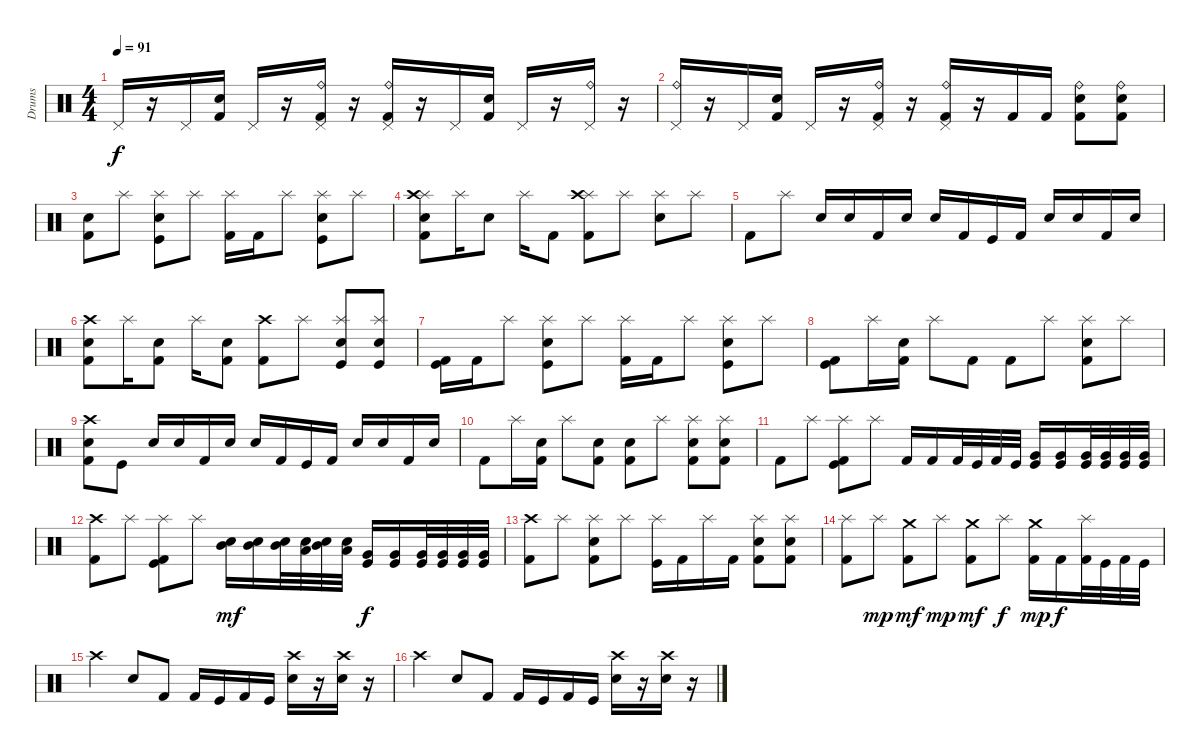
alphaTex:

\track ("Drums" "Drums") {instrument percussion}
\staff {score}
\articulation defaults
\ts (4 4)
\tempo 91
\clef neutral
\ks c "Pedal Hi-Hat (hit)".16{dy f}
r.16 "Pedal Hi-Hat (hit)".16 ("Electric Snare (hit)" "Kick (hit) 2").16 "Pedal Hi-Hat (hit)".16 r.16 ("Pedal Hi-Hat (hit)" "Ride (bell)" "Kick (hit) 2").16 r.16 ("Pedal Hi-Hat (hit)" "Ride (bell)" "Kick (hit) 2").16 r.16 "Pedal Hi-Hat (hit)".16 ("Electric Snare (hit)" "Kick (hit) 2").16 "Pedal Hi-Hat (hit)".16 r.16 ("Pedal Hi-Hat (hit)" "Ride (bell)").16 r.16 |
("Pedal Hi-Hat (hit)" "Ride (bell)").16 r.16 "Pedal Hi-Hat (hit)".16 ("Electric Snare (hit)" "Kick (hit) 2").16 "Pedal Hi-Hat (hit)".16 r.16 ("Pedal Hi-Hat (hit)" "Ride (bell)" "Kick (hit) 2").16 r.16 ("Pedal Hi-Hat (hit)" "Ride (bell)" "Kick (hit) 2").16 r.16 "Kick (hit) 2".16 "Kick (hit) 2".16 ("Ride (bell)" "Kick (hit) 2" "Electric Snare (hit)").8 ("Ride (bell)" "Kick (hit) 2" "Electric Snare (hit)").8 |
("Kick (hit) 2" "Snare (hit) 2").8 "Splash (hit)".8 ("Splash (hit)" "Electric Snare (hit)" "Kick (hit)").8 "Splash (hit)".8 ("Splash (hit)" "Kick (hit) 2").16 "Kick (hit) 2".16 "Splash (hit)".8 ("Splash (hit)" "Electric Snare (hit)" "Kick (hit)").8 "Splash (hit)".8 |
("Splash (hit)" "Snare (hit) 2" "Kick (hit) 2" "Crash high (hit)").8 "Splash (hit)".16 "Electric Snare (hit)".8 "Splash (hit)".16 "Kick (hit) 2".8 ("Splash (hit)" "Kick (hit) 2" "Crash high (hit)").8 "Splash (hit)".8 ("Splash (hit)" "Electric Snare (hit)").8 "Splash (hit)".8 |
"Kick (hit) 2".8 "Splash (hit)".8 "Snare (hit) 2".16 "Electric Snare (hit)".16 "Kick (hit) 2".16 "Snare (hit) 2".16 "Electric Snare (hit)".16 "Kick (hit) 2".16 "Kick (hit)".16 "Kick (hit) 2".16 "Snare (hit) 2".16 "Electric Snare (hit)".16 "Kick (hit) 2".16 "Snare (hit) 2".16 |
("Crash high (hit)" "Kick (hit) 2" "Snare (hit) 2").8 "Splash (hit)".16 ("Kick (hit) 2" "Electric Snare (hit)").8 "Splash (hit)".16 ("Kick (hit) 2" "Snare (hit) 2").8 ("Kick (hit) 2" "Crash high (hit)").8 "Splash (hit)".8 ("Splash (hit)" "Electric Snare (hit)" "Kick (hit)").8 ("Splash (hit)" "Electric Snare (hit)" "Kick (hit)").8 |
("Kick (hit)" "Kick (hit) 2").16 "Kick (hit) 2".16 "Splash (hit)".8 ("Splash (hit)" "Electric Snare (hit)" "Kick (hit)").8 "Splash (hit)".8 ("Splash (hit)" "Kick (hit) 2").16 "Kick (hit) 2".16 "Splash (hit)".8 ("Splash (hit)" "Electric Snare (hit)" "Kick (hit)").8 "Splash (hit)".8 |
("Kick (hit) 2" "Kick (hit)").8 "Splash (hit)".16 ("Kick (hit) 2" "Snare (hit) 2").16 "Splash (hit)".8 "Kick (hit) 2".8 "Kick (hit) 2".8 "Splash (hit)".8 ("Splash (hit)" "Kick (hit) 2" "Snare (hit) 2").8 "Splash (hit)".8 |
("Crash high (hit)" "Kick (hit) 2" "Snare (hit) 2").8 "Kick (hit)".8 "Snare (hit) 2".16 "Electric Snare (hit)".16 "Kick (hit) 2".16 "Snare (hit) 2".16 "Electric Snare (hit)".16 "Kick (hit) 2".16 "Kick (hit)".16 "Kick (hit) 2".16 "Snare (hit) 2".16 "Electric Snare (hit)".16 "Kick (hit) 2".16 "Snare (hit) 2".16 |
"Kick (hit) 2".8 "Splash (hit)".16 ("Kick (hit) 2" "Snare (hit) 2").16 "Splash (hit)".8 ("Kick (hit) 2" "Electric Snare (hit)").8 ("Kick (hit) 2" "Snare (hit) 2").8 "Splash (hit)".8 ("Splash (hit)" "Kick (hit) 2" "Electric Snare (hit)").8 ("Splash (hit)" "Kick (hit) 2" "Electric Snare (hit)").8 |
"Kick (hit) 2".8 "Splash (hit)".8 ("Splash (hit)" "Kick (hit) 2" "Kick (hit)").8 "Splash (hit)".8 "Kick (hit) 2".16 "Kick (hit) 2".16 "Kick (hit) 2".32 "Kick (hit)".32 "Kick (hit) 2".32 "Kick (hit)".32 ("Very Low Tom (hit)" "Kick (hit)").16 ("Very Low Tom (hit)" "Kick (hit)").16 ("Very Low Tom (hit)" "Kick (hit)").32 ("Very Low Tom (hit)" "Kick (hit)").32 ("Very Low Tom (hit)" "Kick (hit)").32 ("Very Low Tom (hit)" "Kick (hit)").32 |
("Kick (hit) 2" "Crash high (hit)").8 "Splash (hit)".8 ("Splash (hit)" "Kick (hit) 2" "Kick (hit)").8 "Splash (hit)".8 ("Snare (hit) 2" "Mid Tom (hit)").16{dy mf} ("Snare (hit) 2" "Mid Tom (hit)").16 ("Snare (hit) 2" "Mid Tom (hit)").32 ("Snare (hit) 2" "Low Tom (hit)").32 ("Snare (hit) 2" "Mid Tom (hit)").32 ("Snare (hit) 2" "Low Tom (hit)").32 ("Very Low Tom (hit)" "Kick (hit)").16{dy f} ("Very Low Tom (hit)" "Kick (hit)").16 ("Very Low Tom (hit)" "Kick (hit)").32 ("Very Low Tom (hit)" "Kick (hit)").32 ("Very Low Tom (hit)" "Kick (hit)").32 ("Very Low Tom (hit)" "Kick (hit)").32 |
("Kick (hit) 2" "Crash high (hit)").8 "Splash (hit)".8 ("Splash (hit)" "Kick (hit) 2" "Snare (hit) 2").8 "Splash (hit)".8 ("Splash (hit)" "Kick (hit)").16 "Kick (hit) 2".16 "Splash (hit)".16 "Kick (hit) 2".16 ("Splash (hit)" "Snare (hit) 2" "Kick (hit) 2").8 ("Splash (hit)" "Snare (hit) 2" "Kick (hit) 2").8 |
("Splash (hit)" "Kick (hit) 2").8 "Splash (hit)".8{dy mp} ("Crash medium (hit)" "Kick (hit) 2").8{dy mf} "Splash (hit)".8{dy mp} ("Crash medium (hit)" "Kick (hit) 2").8{dy mf} "Splash (hit)".8{dy f} ("Crash medium (hit)" "Kick (hit) 2").16{dy mp} "Kick (hit) 2".16{dy f} ("Splash (hit)" "Kick (hit) 2").32 "Kick (hit)".32 "Kick (hit) 2".32 "Kick (hit)".32 |
"Crash high (hit)".4 "Snare (hit) 2".8 "Kick (hit) 2".8 "Kick (hit) 2".16 "Kick (hit)".16 "Kick (hit) 2".16 "Kick (hit)".16 ("Snare (hit) 2" "Crash high (hit)").16 r.16 ("Snare (hit) 2" "Crash high (hit)").16 r.16 |
"Crash high (hit)".4 "Snare (hit) 2".8 "Kick (hit) 2".8 "Kick (hit) 2".16 "Kick (hit)".16 "Kick (hit) 2".16 "Kick (hit)".16 ("Snare (hit) 2" "Crash high (hit)").16 r.16 ("Snare (hit) 2" "Crash high (hit)").16 r.16
